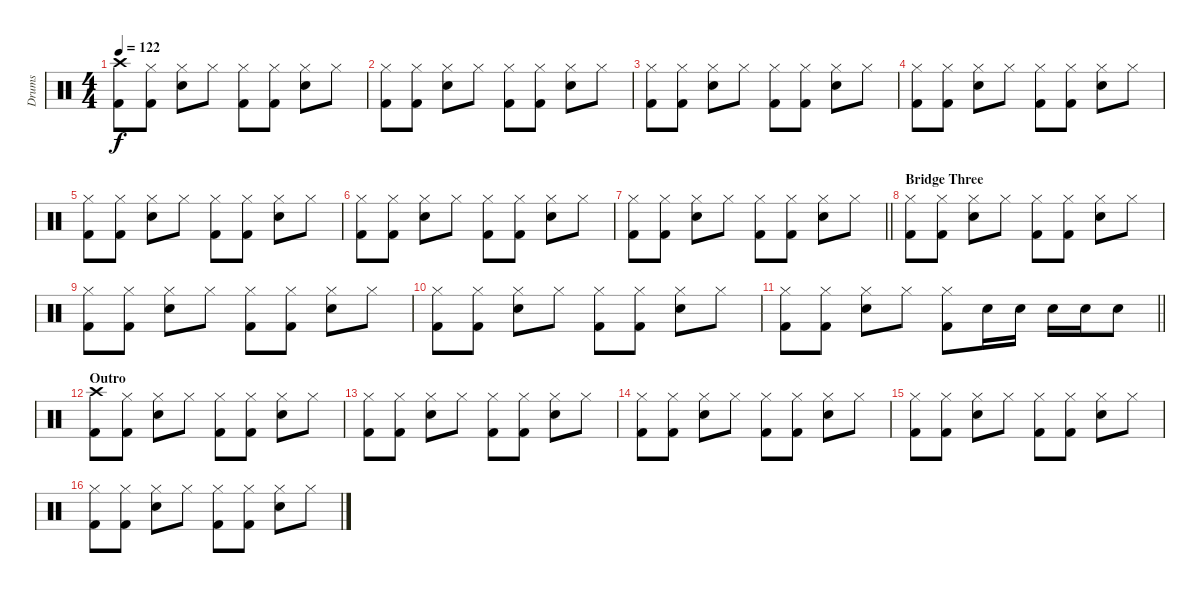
\track ("Drums" "Drums") {instrument percussion}
\staff {score}
\articulation defaults
\ts (4 4)
\tempo 122
\clef neutral
\ks c
("Crash high (hit)" "Kick (hit) 2").8{dy f} ("Hi-Hat (closed)" "Kick (hit) 2").8 ("Hi-Hat (closed)" "Snare (hit) 2").8 "Hi-Hat (closed)".8 ("Hi-Hat (closed)" "Kick (hit) 2").8 ("Hi-Hat (closed)" "Kick (hit) 2").8 ("Hi-Hat (closed)" "Snare (hit) 2").8 "Hi-Hat (closed)".8 |
("Hi-Hat (closed)" "Kick (hit) 2").8 ("Hi-Hat (closed)" "Kick (hit) 2").8 ("Hi-Hat (closed)" "Snare (hit) 2").8 "Hi-Hat (closed)".8 ("Hi-Hat (closed)" "Kick (hit) 2").8 ("Hi-Hat (closed)" "Kick (hit) 2").8 ("Hi-Hat (closed)" "Snare (hit) 2").8 "Hi-Hat (closed)".8 |
("Hi-Hat (closed)" "Kick (hit) 2").8 ("Hi-Hat (closed)" "Kick (hit) 2").8 ("Hi-Hat (closed)" "Snare (hit) 2").8 "Hi-Hat (closed)".8 ("Hi-Hat (closed)" "Kick (hit) 2").8 ("Hi-Hat (closed)" "Kick (hit) 2").8 ("Hi-Hat (closed)" "Snare (hit) 2").8 "Hi-Hat (closed)".8 |
("Hi-Hat (closed)" "Kick (hit) 2").8 ("Hi-Hat (closed)" "Kick (hit) 2").8 ("Hi-Hat (closed)" "Snare (hit) 2").8 "Hi-Hat (closed)".8 ("Hi-Hat (closed)" "Kick (hit) 2").8 ("Hi-Hat (closed)" "Kick (hit) 2").8 ("Hi-Hat (closed)" "Snare (hit) 2").8 "Hi-Hat (closed)".8 |
("Hi-Hat (closed)" "Kick (hit) 2").8 ("Hi-Hat (closed)" "Kick (hit) 2").8 ("Hi-Hat (closed)" "Snare (hit) 2").8 "Hi-Hat (closed)".8 ("Hi-Hat (closed)" "Kick (hit) 2").8 ("Hi-Hat (closed)" "Kick (hit) 2").8 ("Hi-Hat (closed)" "Snare (hit) 2").8 "Hi-Hat (closed)".8 |
("Hi-Hat (closed)" "Kick (hit) 2").8 ("Hi-Hat (closed)" "Kick (hit) 2").8 ("Hi-Hat (closed)" "Snare (hit) 2").8 "Hi-Hat (closed)".8 ("Hi-Hat (closed)" "Kick (hit) 2").8 ("Hi-Hat (closed)" "Kick (hit) 2").8 ("Hi-Hat (closed)" "Snare (hit) 2").8 "Hi-Hat (closed)".8 |
\barLineRight lightlight
("Hi-Hat (closed)" "Kick (hit) 2").8 ("Hi-Hat (closed)" "Kick (hit) 2").8 ("Hi-Hat (closed)" "Snare (hit) 2").8 "Hi-Hat (closed)".8 ("Hi-Hat (closed)" "Kick (hit) 2").8 ("Hi-Hat (closed)" "Kick (hit) 2").8 ("Hi-Hat (closed)" "Snare (hit) 2").8 "Hi-Hat (closed)".8 |
\section ("" "Bridge Three")
("Hi-Hat (closed)" "Kick (hit) 2").8 ("Hi-Hat (closed)" "Kick (hit) 2").8 ("Hi-Hat (closed)" "Snare (hit) 2").8 "Hi-Hat (closed)".8 ("Hi-Hat (closed)" "Kick (hit) 2").8 ("Hi-Hat (closed)" "Kick (hit) 2").8 ("Hi-Hat (closed)" "Snare (hit) 2").8 "Hi-Hat (closed)".8 |
("Hi-Hat (closed)" "Kick (hit) 2").8 ("Hi-Hat (closed)" "Kick (hit) 2").8 ("Hi-Hat (closed)" "Snare (hit) 2").8 "Hi-Hat (closed)".8 ("Hi-Hat (closed)" "Kick (hit) 2").8 ("Hi-Hat (closed)" "Kick (hit) 2").8 ("Hi-Hat (closed)" "Snare (hit) 2").8 "Hi-Hat (closed)".8 |
("Hi-Hat (closed)" "Kick (hit) 2").8 ("Hi-Hat (closed)" "Kick (hit) 2").8 ("Hi-Hat (closed)" "Snare (hit) 2").8 "Hi-Hat (closed)".8 ("Hi-Hat (closed)" "Kick (hit) 2").8 ("Hi-Hat (closed)" "Kick (hit) 2").8 ("Hi-Hat (closed)" "Snare (hit) 2").8 "Hi-Hat (closed)".8 |
\barLineRight lightlight
("Hi-Hat (closed)" "Kick (hit) 2").8 ("Hi-Hat (closed)" "Kick (hit) 2").8 ("Hi-Hat (closed)" "Snare (hit) 2").8 "Hi-Hat (closed)".8 ("Hi-Hat (closed)" "Kick (hit) 2").8 "Snare (hit) 2".16 "Snare (hit) 2".16 "Snare (hit) 2".16 "Snare (hit) 2".16 "Snare (hit) 2".8 |
\section ("" "Outro")
("Crash high (hit)" "Kick (hit) 2").8 ("Hi-Hat (closed)" "Kick (hit) 2").8 ("Hi-Hat (closed)" "Snare (hit) 2").8 "Hi-Hat (closed)".8 ("Hi-Hat (closed)" "Kick (hit) 2").8 ("Hi-Hat (closed)" "Kick (hit) 2").8 ("Hi-Hat (closed)" "Snare (hit) 2").8 "Hi-Hat (closed)".8 |
("Hi-Hat (closed)" "Kick (hit) 2").8 ("Hi-Hat (closed)" "Kick (hit) 2").8 ("Hi-Hat (closed)" "Snare (hit) 2").8 "Hi-Hat (closed)".8 ("Hi-Hat (closed)" "Kick (hit) 2").8 ("Hi-Hat (closed)" "Kick (hit) 2").8 ("Hi-Hat (closed)" "Snare (hit) 2").8 "Hi-Hat (closed)".8 |
("Hi-Hat (closed)" "Kick (hit) 2").8 ("Hi-Hat (closed)" "Kick (hit) 2").8 ("Hi-Hat (closed)" "Snare (hit) 2").8 "Hi-Hat (closed)".8 ("Hi-Hat (closed)" "Kick (hit) 2").8 ("Hi-Hat (closed)" "Kick (hit) 2").8 ("Hi-Hat (closed)" "Snare (hit) 2").8 "Hi-Hat (closed)".8 |
("Hi-Hat (closed)" "Kick (hit) 2").8 ("Hi-Hat (closed)" "Kick (hit) 2").8 ("Hi-Hat (closed)" "Snare (hit) 2").8 "Hi-Hat (closed)".8 ("Hi-Hat (closed)" "Kick (hit) 2").8 ("Hi-Hat (closed)" "Kick (hit) 2").8 ("Hi-Hat (closed)" "Snare (hit) 2").8 "Hi-Hat (closed)".8 |
("Hi-Hat (closed)" "Kick (hit) 2").8 ("Hi-Hat (closed)" "Kick (hit) 2").8 ("Hi-Hat (closed)" "Snare (hit) 2").8 "Hi-Hat (closed)".8 ("Hi-Hat (closed)" "Kick (hit) 2").8 ("Hi-Hat (closed)" "Kick (hit) 2").8 ("Hi-Hat (closed)" "Snare (hit) 2").8 "Hi-Hat (closed)".8
